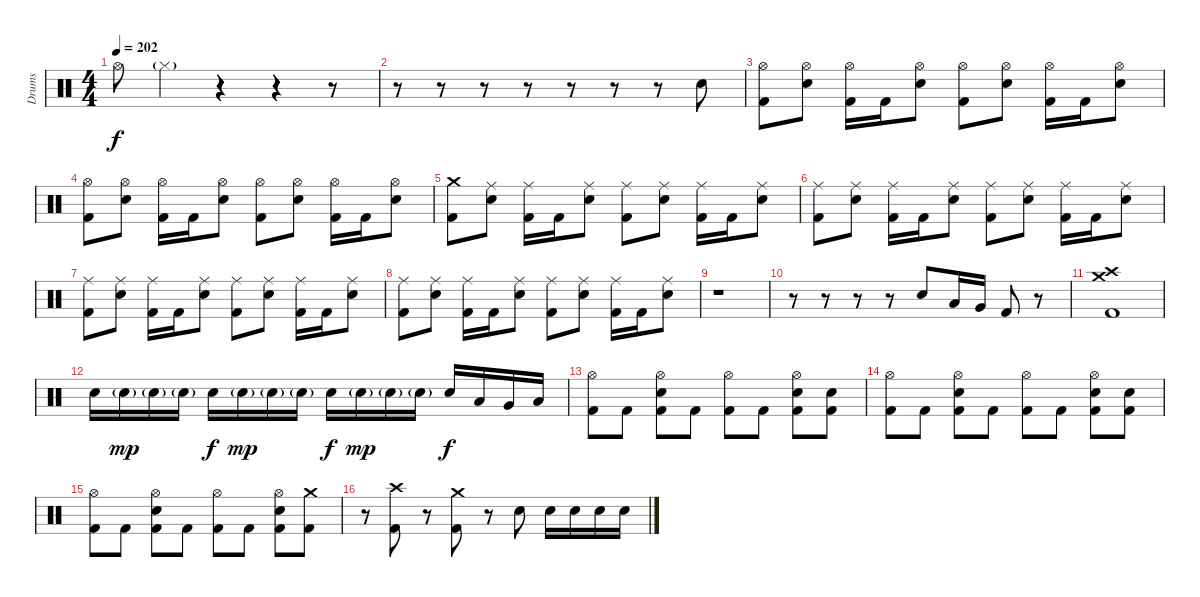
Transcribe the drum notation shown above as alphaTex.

\track ("Drums" "Drums") {instrument percussion}
\staff {score}
\articulation defaults
\ts (4 4)
\tempo 202
\clef neutral
\ks c "Hi-Hat (open)".8{dy f} "Hi-Hat (closed)"{g}.4
r.4 r.4 r.8 |
r.8 r.8 r.8 r.8 r.8 r.8 r.8 "Electric Snare (hit)".8 |
("Hi-Hat (open)" "Kick (hit) 2").8 ("Hi-Hat (open)" "Electric Snare (hit)").8 ("Hi-Hat (open)" "Kick (hit) 2").16 "Kick (hit) 2".16 ("Hi-Hat (open)" "Electric Snare (hit)").8 ("Hi-Hat (open)" "Kick (hit) 2").8 ("Hi-Hat (open)" "Electric Snare (hit)").8 ("Hi-Hat (open)" "Kick (hit) 2").16 "Kick (hit) 2".16 ("Hi-Hat (open)" "Electric Snare (hit)").8 |
("Hi-Hat (open)" "Kick (hit) 2").8 ("Hi-Hat (open)" "Electric Snare (hit)").8 ("Hi-Hat (open)" "Kick (hit) 2").16 "Kick (hit) 2".16 ("Hi-Hat (open)" "Electric Snare (hit)").8 ("Hi-Hat (open)" "Kick (hit) 2").8 ("Hi-Hat (open)" "Electric Snare (hit)").8 ("Hi-Hat (open)" "Kick (hit) 2").16 "Kick (hit) 2".16 ("Hi-Hat (open)" "Electric Snare (hit)").8 |
("Crash medium (hit)" "Kick (hit) 2").8 ("Ride (middle)" "Electric Snare (hit)").8 ("Ride (middle)" "Kick (hit) 2").16 "Kick (hit) 2".16 ("Ride (middle)" "Electric Snare (hit)").8 ("Ride (middle)" "Kick (hit) 2").8 ("Ride (middle)" "Electric Snare (hit)").8 ("Ride (middle)" "Kick (hit) 2").16 "Kick (hit) 2".16 ("Ride (middle)" "Electric Snare (hit)").8 |
("Ride (middle)" "Kick (hit) 2").8 ("Ride (middle)" "Electric Snare (hit)").8 ("Ride (middle)" "Kick (hit) 2").16 "Kick (hit) 2".16 ("Ride (middle)" "Electric Snare (hit)").8 ("Ride (middle)" "Kick (hit) 2").8 ("Ride (middle)" "Electric Snare (hit)").8 ("Ride (middle)" "Kick (hit) 2").16 "Kick (hit) 2".16 ("Ride (middle)" "Electric Snare (hit)").8 |
("Ride (middle)" "Kick (hit) 2").8 ("Ride (middle)" "Electric Snare (hit)").8 ("Ride (middle)" "Kick (hit) 2").16 "Kick (hit) 2".16 ("Ride (middle)" "Electric Snare (hit)").8 ("Ride (middle)" "Kick (hit) 2").8 ("Ride (middle)" "Electric Snare (hit)").8 ("Ride (middle)" "Kick (hit) 2").16 "Kick (hit) 2".16 ("Ride (middle)" "Electric Snare (hit)").8 |
("Ride (middle)" "Kick (hit) 2").8 ("Ride (middle)" "Electric Snare (hit)").8 ("Ride (middle)" "Kick (hit) 2").16 "Kick (hit) 2".16 ("Ride (middle)" "Electric Snare (hit)").8 ("Ride (middle)" "Kick (hit) 2").8 ("Ride (middle)" "Electric Snare (hit)").8 ("Ride (middle)" "Kick (hit) 2").16 "Kick (hit) 2".16 ("Ride (middle)" "Electric Snare (hit)").8 |
r.1 |
r.8 r.8 r.8 r.8 "Electric Snare (hit)".8 "Low Tom (hit)".16 "Very Low Tom (hit)".16 "Kick (hit) 2".8 r.8 |
("Crash medium (hit)" "Crash high (hit)" "Kick (hit) 2").1 |
"Electric Snare (hit)".16 "Snare (hit) 2"{g}.16{dy mp} "Snare (hit) 2"{g}.16 "Snare (hit) 2"{g}.16 "Electric Snare (hit)".16{dy f} "Snare (hit) 2"{g}.16{dy mp} "Snare (hit) 2"{g}.16 "Snare (hit) 2"{g}.16 "Electric Snare (hit)".16{dy f} "Snare (hit) 2"{g}.16{dy mp} "Snare (hit) 2"{g}.16 "Snare (hit) 2"{g}.16 "Electric Snare (hit)".16{dy f} "Low Tom (hit)".16 "Very Low Tom (hit)".16 "Low Floor Tom (hit)".16 |
("Hi-Hat (open)" "Kick (hit) 2").8 "Kick (hit) 2".8 ("Hi-Hat (open)" "Electric Snare (hit)" "Kick (hit) 2").8 "Kick (hit) 2".8 ("Hi-Hat (open)" "Kick (hit) 2").8 "Kick (hit) 2".8 ("Hi-Hat (open)" "Electric Snare (hit)" "Kick (hit) 2").8 ("Electric Snare (hit)" "Kick (hit) 2").8 |
("Hi-Hat (open)" "Kick (hit) 2").8 "Kick (hit) 2".8 ("Hi-Hat (open)" "Electric Snare (hit)" "Kick (hit) 2").8 "Kick (hit) 2".8 ("Hi-Hat (open)" "Kick (hit) 2").8 "Kick (hit) 2".8 ("Hi-Hat (open)" "Electric Snare (hit)" "Kick (hit) 2").8 ("Electric Snare (hit)" "Kick (hit) 2").8 |
("Hi-Hat (open)" "Kick (hit) 2").8 "Kick (hit) 2".8 ("Hi-Hat (open)" "Electric Snare (hit)" "Kick (hit) 2").8 "Kick (hit) 2".8 ("Hi-Hat (open)" "Kick (hit) 2").8 "Kick (hit) 2".8 ("Hi-Hat (open)" "Electric Snare (hit)" "Kick (hit) 2").8 ("Crash medium (hit)" "Kick (hit) 2").8 |
r.8 ("Crash high (hit)" "Kick (hit) 2").8 r.8 ("Crash medium (hit)" "Kick (hit) 2").8 r.8 "Electric Snare (hit)".8 "Electric Snare (hit)".16 "Electric Snare (hit)".16 "Electric Snare (hit)".16 "Electric Snare (hit)".16
